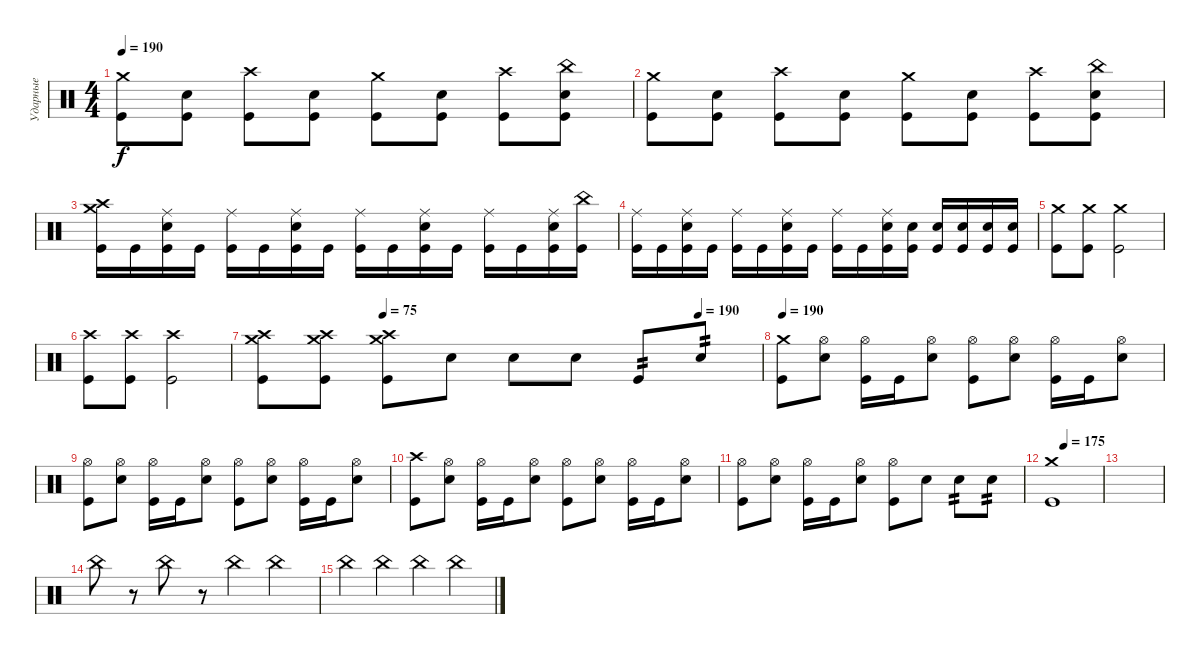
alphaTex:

\track ("Ударные" "Ударные") {instrument percussion}
\staff {score}
\articulation defaults
\ts (4 4)
\tempo 190
\clef neutral
\ks c
("Kick (hit)" "Crash medium (hit)").8{dy f} ("Kick (hit)" "Electric Snare (hit)").8 ("Kick (hit)" "Crash high (hit)").8 ("Kick (hit)" "Electric Snare (hit)").8 ("Kick (hit)" "Crash medium (hit)").8 ("Kick (hit)" "Electric Snare (hit)").8 ("Kick (hit)" "Crash high (hit)").8 ("Kick (hit)" "Electric Snare (hit)" "China (hit)").8 |
("Kick (hit)" "Crash medium (hit)").8 ("Kick (hit)" "Electric Snare (hit)").8 ("Kick (hit)" "Crash high (hit)").8 ("Kick (hit)" "Electric Snare (hit)").8 ("Kick (hit)" "Crash medium (hit)").8 ("Kick (hit)" "Electric Snare (hit)").8 ("Kick (hit)" "Crash high (hit)").8 ("Kick (hit)" "Electric Snare (hit)" "China (hit)").8 |
("Kick (hit)" "Crash medium (hit)" "Crash high (hit)").16 "Kick (hit)".16 ("Kick (hit)" "Electric Snare (hit)" "Ride (middle)").16 "Kick (hit)".16 ("Kick (hit)" "Ride (middle)").16 "Kick (hit)".16 ("Kick (hit)" "Electric Snare (hit)" "Ride (middle)").16 "Kick (hit)".16 ("Kick (hit)" "Ride (middle)").16 "Kick (hit)".16 ("Kick (hit)" "Electric Snare (hit)" "Ride (middle)").16 "Kick (hit)".16 ("Kick (hit)" "Ride (middle)").16 "Kick (hit)".16 ("Kick (hit)" "Electric Snare (hit)" "Ride (middle)").16 ("Kick (hit)" "China (hit)").16 |
("Kick (hit)" "Ride (middle)").16 "Kick (hit)".16 ("Kick (hit)" "Electric Snare (hit)" "Ride (middle)").16 "Kick (hit)".16 ("Kick (hit)" "Ride (middle)").16 "Kick (hit)".16 ("Kick (hit)" "Electric Snare (hit)" "Ride (middle)").16 "Kick (hit)".16 ("Kick (hit)" "Ride (middle)").16 "Kick (hit)".16 ("Kick (hit)" "Electric Snare (hit)" "Ride (middle)").16 ("Kick (hit)" "Electric Snare (hit)").16 ("Kick (hit)" "Electric Snare (hit)").16 ("Kick (hit)" "Electric Snare (hit)").16 ("Kick (hit)" "Electric Snare (hit)").16 ("Kick (hit)" "Electric Snare (hit)").16 |
("Kick (hit)" "Crash medium (hit)").8 ("Kick (hit)" "Crash medium (hit)").8 ("Kick (hit)" "Crash medium (hit)").2 |
("Kick (hit)" "Crash high (hit)").8 ("Kick (hit)" "Crash high (hit)").8 ("Kick (hit)" "Crash high (hit)").2 |
\tempo (75 0.25)
\tempo (190 0.875)
("Kick (hit)" "Crash medium (hit)" "Crash high (hit)").8 ("Kick (hit)" "Crash medium (hit)" "Crash high (hit)").8 ("Kick (hit)" "Crash medium (hit)" "Crash high (hit)").8 "Snare (hit)".8 "Snare (hit)".8 "Snare (hit)".8 "Kick (hit)".8{tp 2} "Electric Snare (hit)".8{tp 2} |
\tempo 195
\tempo 190
("Kick (hit)" "Crash medium (hit)").8 ("Electric Snare (hit)" "Hi-Hat (open)").8 ("Kick (hit)" "Hi-Hat (open)").16 "Kick (hit)".16 ("Electric Snare (hit)" "Hi-Hat (open)").8 ("Kick (hit)" "Hi-Hat (open)").8 ("Electric Snare (hit)" "Hi-Hat (open)").8 ("Kick (hit)" "Hi-Hat (open)").16 "Kick (hit)".16 ("Electric Snare (hit)" "Hi-Hat (open)").8 |
("Kick (hit)" "Hi-Hat (open)").8 ("Electric Snare (hit)" "Hi-Hat (open)").8 ("Kick (hit)" "Hi-Hat (open)").16 "Kick (hit)".16 ("Electric Snare (hit)" "Hi-Hat (open)").8 ("Kick (hit)" "Hi-Hat (open)").8 ("Electric Snare (hit)" "Hi-Hat (open)").8 ("Kick (hit)" "Hi-Hat (open)").16 "Kick (hit)".16 ("Electric Snare (hit)" "Hi-Hat (open)").8 |
("Kick (hit)" "Crash high (hit)").8 ("Electric Snare (hit)" "Hi-Hat (open)").8 ("Kick (hit)" "Hi-Hat (open)").16 "Kick (hit)".16 ("Electric Snare (hit)" "Hi-Hat (open)").8 ("Kick (hit)" "Hi-Hat (open)").8 ("Electric Snare (hit)" "Hi-Hat (open)").8 ("Kick (hit)" "Hi-Hat (open)").16 "Kick (hit)".16 ("Electric Snare (hit)" "Hi-Hat (open)").8 |
("Kick (hit)" "Hi-Hat (open)").8 ("Electric Snare (hit)" "Hi-Hat (open)").8 ("Kick (hit)" "Hi-Hat (open)").16 "Kick (hit)".16 ("Electric Snare (hit)" "Hi-Hat (open)").8 ("Kick (hit)" "Hi-Hat (open)").8 "Electric Snare (hit)".8 "Electric Snare (hit)".8{tp 2} "Electric Snare (hit)".8{tp 2} |
\tempo (175 0.25)
("Crash medium (hit)" "Kick (hit)").1 |
|
"China (hit)".8 r.8 "China (hit)".8 r.8 "China (hit)".4 "China (hit)".4 |
"China (hit)".4 "China (hit)".4 "China (hit)".4 "China (hit)".4
